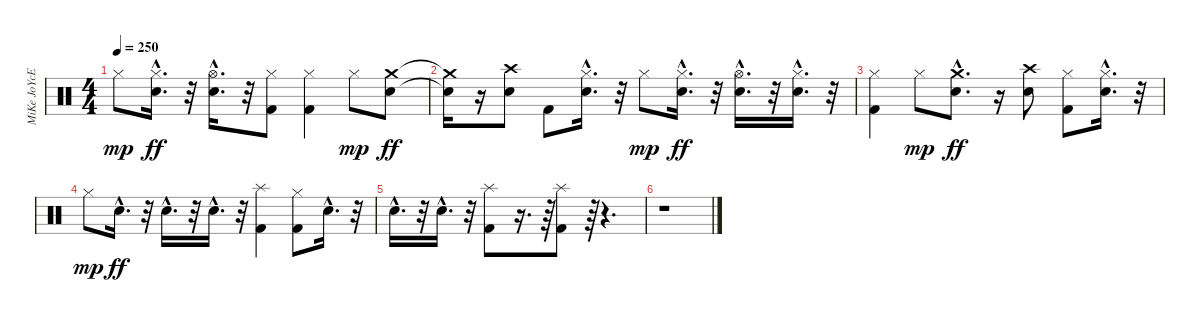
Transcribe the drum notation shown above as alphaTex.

\track ("MiKe JoYcE" "MiKe JoYcE") {instrument percussion}
\staff {score}
\articulation defaults
\ts (4 4)
\tempo 250
\clef neutral
\ks c "Hi-Hat (closed)".8{dy mp}
("Hi-Hat (closed)"{hac} "Electric Snare (hit)"{hac}).16{d dy ff} r.32 ("Hi-Hat (open)"{hac} "Electric Snare (hit)"{hac}).16{d} r.32 ("Hi-Hat (closed)" "Kick (hit) 2").8 ("Hi-Hat (closed)" "Kick (hit) 2").4 "Hi-Hat (closed)".8{dy mp} ("Crash medium (hit)" "Electric Snare (hit)").8{dy ff} |
("Crash medium (hit)"{t} "Electric Snare (hit)"{t}).16 r.16 ("Crash high (hit)" "Electric Snare (hit)").8 "Kick (hit) 2".8 ("Hi-Hat (closed)"{hac} "Electric Snare (hit)"{hac}).16{d} r.32 "Hi-Hat (closed)".8{dy mp} ("Hi-Hat (closed)"{hac} "Electric Snare (hit)"{hac}).16{d dy ff} r.32 ("Hi-Hat (open)"{hac} "Electric Snare (hit)"{hac}).16{d} r.32 ("Hi-Hat (closed)"{hac} "Electric Snare (hit)"{hac}).16{d} r.32 |
("Hi-Hat (closed)" "Kick (hit) 2").4 "Hi-Hat (closed)".8{dy mp} ("Crash medium (hit)"{hac} "Electric Snare (hit)"{hac}).8{d dy ff} r.16 ("Crash high (hit)" "Electric Snare (hit)").8 ("Hi-Hat (closed)" "Kick (hit) 2").8 ("Hi-Hat (closed)"{hac} "Electric Snare (hit)"{hac}).16{d} r.32 |
"Hi-Hat (closed)".8{dy mp} "Electric Snare (hit)"{hac}.16{d dy ff} r.32 "Electric Snare (hit)"{hac}.16{d} r.32 "Electric Snare (hit)"{hac}.16{d} r.32 ("Splash (hit)" "Kick (hit) 2").4 ("Hi-Hat (closed)" "Kick (hit) 2").8 "Electric Snare (hit)"{hac}.16{d} r.32 |
"Electric Snare (hit)"{hac}.16{d} r.32 "Electric Snare (hit)"{hac}.16{d} r.32 ("Splash (hit)" "Kick (hit) 2").8 r.16{d} r.64 ("Splash (hit)" "Kick (hit) 2").8 r.64 r.4{d} |
r.1
